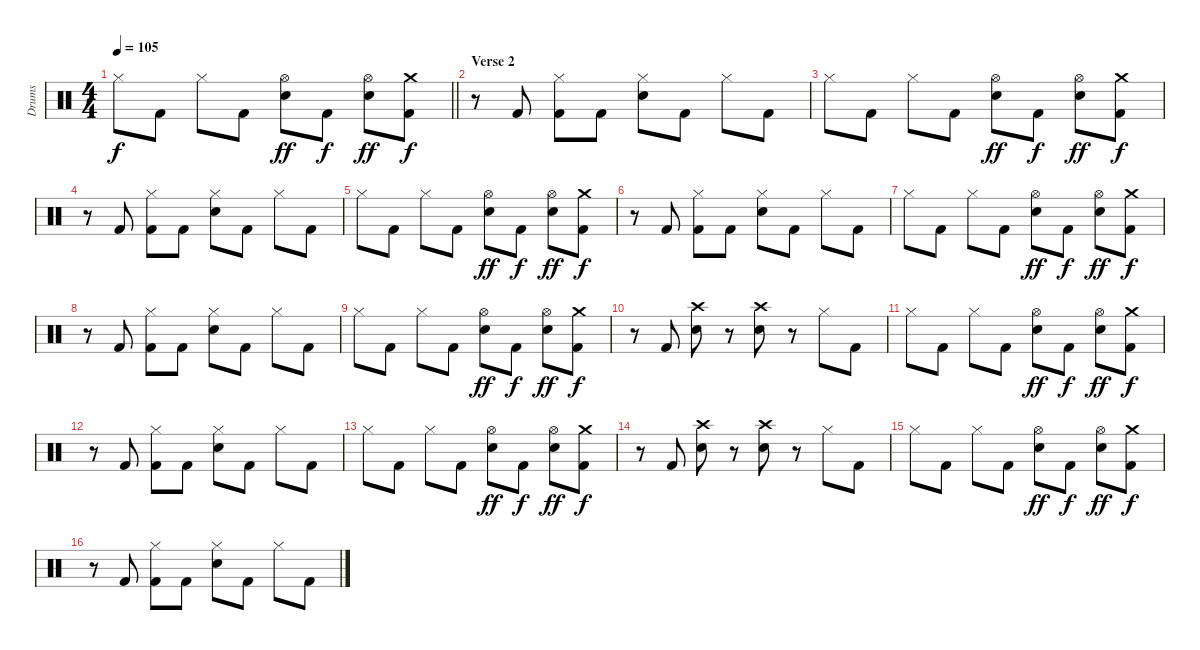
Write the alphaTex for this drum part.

\track ("Drums" "Drums") {instrument percussion}
\staff {score}
\articulation defaults
\ts (4 4)
\tempo 105
\clef neutral
\barLineRight lightlight
\ks c "Hi-Hat (closed)".8{dy f} "Kick (hit) 2".8 "Hi-Hat (closed)".8 "Kick (hit) 2".8
("Hi-Hat (open)" "Snare (hit) 2").8{dy ff} "Kick (hit) 2".8{dy f} ("Hi-Hat (open)" "Snare (hit) 2").8{dy ff} ("Crash medium (hit)" "Kick (hit) 2").8{dy f} |
\section ("" "Verse 2")
r.8 "Kick (hit) 2".8 ("Hi-Hat (closed)" "Kick (hit) 2").8 "Kick (hit) 2".8 ("Hi-Hat (closed)" "Snare (hit) 2").8 "Kick (hit) 2".8 "Hi-Hat (closed)".8 "Kick (hit) 2".8 |
"Hi-Hat (closed)".8 "Kick (hit) 2".8 "Hi-Hat (closed)".8 "Kick (hit) 2".8 ("Hi-Hat (open)" "Snare (hit) 2").8{dy ff} "Kick (hit) 2".8{dy f} ("Hi-Hat (open)" "Snare (hit) 2").8{dy ff} ("Crash medium (hit)" "Kick (hit) 2").8{dy f} |
r.8 "Kick (hit) 2".8 ("Hi-Hat (closed)" "Kick (hit) 2").8 "Kick (hit) 2".8 ("Hi-Hat (closed)" "Snare (hit) 2").8 "Kick (hit) 2".8 "Hi-Hat (closed)".8 "Kick (hit) 2".8 |
"Hi-Hat (closed)".8 "Kick (hit) 2".8 "Hi-Hat (closed)".8 "Kick (hit) 2".8 ("Hi-Hat (open)" "Snare (hit) 2").8{dy ff} "Kick (hit) 2".8{dy f} ("Hi-Hat (open)" "Snare (hit) 2").8{dy ff} ("Crash medium (hit)" "Kick (hit) 2").8{dy f} |
r.8 "Kick (hit) 2".8 ("Hi-Hat (closed)" "Kick (hit) 2").8 "Kick (hit) 2".8 ("Hi-Hat (closed)" "Snare (hit) 2").8 "Kick (hit) 2".8 "Hi-Hat (closed)".8 "Kick (hit) 2".8 |
"Hi-Hat (closed)".8 "Kick (hit) 2".8 "Hi-Hat (closed)".8 "Kick (hit) 2".8 ("Hi-Hat (open)" "Snare (hit) 2").8{dy ff} "Kick (hit) 2".8{dy f} ("Hi-Hat (open)" "Snare (hit) 2").8{dy ff} ("Crash medium (hit)" "Kick (hit) 2").8{dy f} |
r.8 "Kick (hit) 2".8 ("Hi-Hat (closed)" "Kick (hit) 2").8 "Kick (hit) 2".8 ("Hi-Hat (closed)" "Snare (hit) 2").8 "Kick (hit) 2".8 "Hi-Hat (closed)".8 "Kick (hit) 2".8 |
"Hi-Hat (closed)".8 "Kick (hit) 2".8 "Hi-Hat (closed)".8 "Kick (hit) 2".8 ("Hi-Hat (open)" "Snare (hit) 2").8{dy ff} "Kick (hit) 2".8{dy f} ("Hi-Hat (open)" "Snare (hit) 2").8{dy ff} ("Crash medium (hit)" "Kick (hit) 2").8{dy f} |
r.8 "Kick (hit) 2".8 ("Crash high (hit)" "Snare (hit) 2").8 r.8 ("Crash high (hit)" "Snare (hit) 2").8 r.8 "Hi-Hat (closed)".8 "Kick (hit) 2".8 |
"Hi-Hat (closed)".8 "Kick (hit) 2".8 "Hi-Hat (closed)".8 "Kick (hit) 2".8 ("Hi-Hat (open)" "Snare (hit) 2").8{dy ff} "Kick (hit) 2".8{dy f} ("Hi-Hat (open)" "Snare (hit) 2").8{dy ff} ("Crash medium (hit)" "Kick (hit) 2").8{dy f} |
r.8 "Kick (hit) 2".8 ("Hi-Hat (closed)" "Kick (hit) 2").8 "Kick (hit) 2".8 ("Hi-Hat (closed)" "Snare (hit) 2").8 "Kick (hit) 2".8 "Hi-Hat (closed)".8 "Kick (hit) 2".8 |
"Hi-Hat (closed)".8 "Kick (hit) 2".8 "Hi-Hat (closed)".8 "Kick (hit) 2".8 ("Hi-Hat (open)" "Snare (hit) 2").8{dy ff} "Kick (hit) 2".8{dy f} ("Hi-Hat (open)" "Snare (hit) 2").8{dy ff} ("Crash medium (hit)" "Kick (hit) 2").8{dy f} |
r.8 "Kick (hit) 2".8 ("Crash high (hit)" "Snare (hit) 2").8 r.8 ("Crash high (hit)" "Snare (hit) 2").8 r.8 "Hi-Hat (closed)".8 "Kick (hit) 2".8 |
"Hi-Hat (closed)".8 "Kick (hit) 2".8 "Hi-Hat (closed)".8 "Kick (hit) 2".8 ("Hi-Hat (open)" "Snare (hit) 2").8{dy ff} "Kick (hit) 2".8{dy f} ("Hi-Hat (open)" "Snare (hit) 2").8{dy ff} ("Crash medium (hit)" "Kick (hit) 2").8{dy f} |
r.8 "Kick (hit) 2".8 ("Hi-Hat (closed)" "Kick (hit) 2").8 "Kick (hit) 2".8 ("Hi-Hat (closed)" "Snare (hit) 2").8 "Kick (hit) 2".8 "Hi-Hat (closed)".8 "Kick (hit) 2".8
